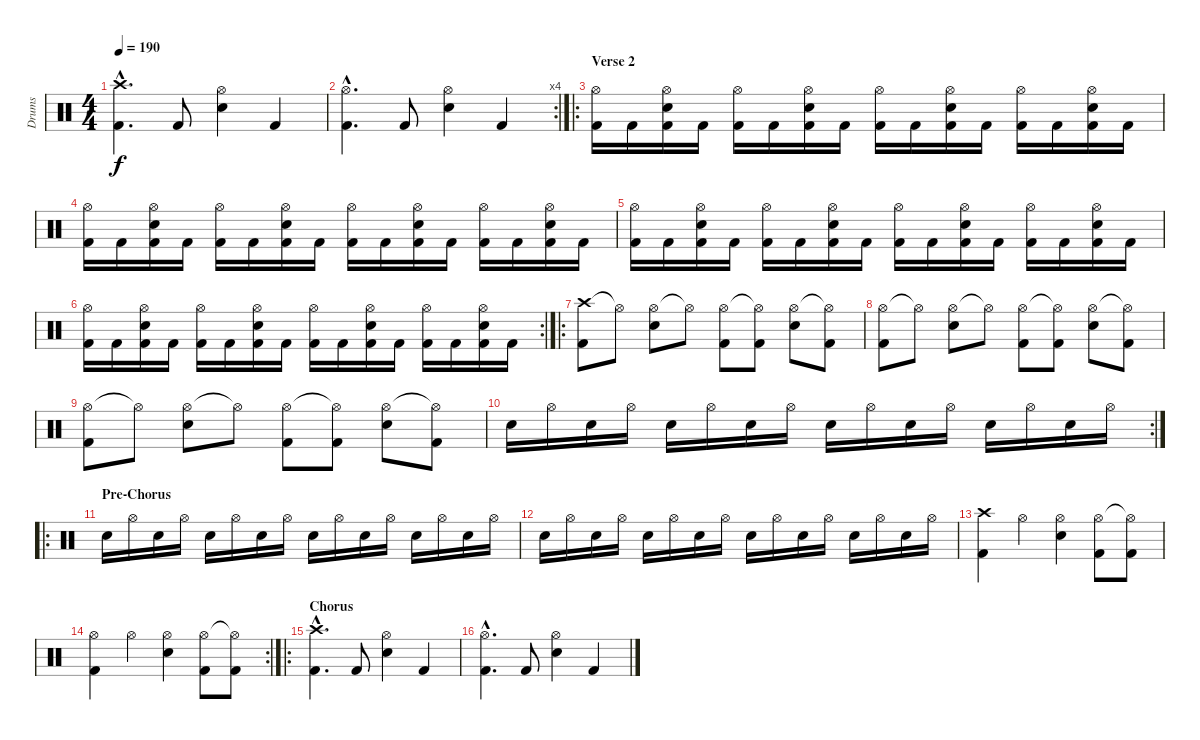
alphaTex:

\track ("Drums" "Drums") {instrument percussion}
\staff {score}
\articulation defaults
\ts (4 4)
\tempo 190
\clef neutral
\ks c
("Crash high (hit)"{hac} "Kick (hit) 2"{hac}).4{d dy f} "Kick (hit) 2".8 ("Electric Snare (hit)" "Hi-Hat (open)").4 "Kick (hit) 2".4 |
\rc 4
("Hi-Hat (open)"{hac} "Kick (hit) 2"{hac}).4{d} "Kick (hit) 2".8 ("Electric Snare (hit)" "Hi-Hat (open)").4 "Kick (hit) 2".4 |
\ro
\section ("" "Verse 2")
("Kick (hit) 2" "Hi-Hat (open)").16 "Kick (hit) 2".16 ("Kick (hit) 2" "Hi-Hat (open)" "Electric Snare (hit)").16 "Kick (hit) 2".16 ("Kick (hit) 2" "Hi-Hat (open)").16 "Kick (hit) 2".16 ("Kick (hit) 2" "Hi-Hat (open)" "Electric Snare (hit)").16 "Kick (hit) 2".16 ("Kick (hit) 2" "Hi-Hat (open)").16 "Kick (hit) 2".16 ("Kick (hit) 2" "Hi-Hat (open)" "Electric Snare (hit)").16 "Kick (hit) 2".16 ("Kick (hit) 2" "Hi-Hat (open)").16 "Kick (hit) 2".16 ("Kick (hit) 2" "Hi-Hat (open)" "Electric Snare (hit)").16 "Kick (hit) 2".16 |
("Kick (hit) 2" "Hi-Hat (open)").16 "Kick (hit) 2".16 ("Kick (hit) 2" "Hi-Hat (open)" "Electric Snare (hit)").16 "Kick (hit) 2".16 ("Kick (hit) 2" "Hi-Hat (open)").16 "Kick (hit) 2".16 ("Kick (hit) 2" "Hi-Hat (open)" "Electric Snare (hit)").16 "Kick (hit) 2".16 ("Kick (hit) 2" "Hi-Hat (open)").16 "Kick (hit) 2".16 ("Kick (hit) 2" "Hi-Hat (open)" "Electric Snare (hit)").16 "Kick (hit) 2".16 ("Kick (hit) 2" "Hi-Hat (open)").16 "Kick (hit) 2".16 ("Kick (hit) 2" "Hi-Hat (open)" "Electric Snare (hit)").16 "Kick (hit) 2".16 |
("Kick (hit) 2" "Hi-Hat (open)").16 "Kick (hit) 2".16 ("Kick (hit) 2" "Hi-Hat (open)" "Electric Snare (hit)").16 "Kick (hit) 2".16 ("Kick (hit) 2" "Hi-Hat (open)").16 "Kick (hit) 2".16 ("Kick (hit) 2" "Hi-Hat (open)" "Electric Snare (hit)").16 "Kick (hit) 2".16 ("Kick (hit) 2" "Hi-Hat (open)").16 "Kick (hit) 2".16 ("Kick (hit) 2" "Hi-Hat (open)" "Electric Snare (hit)").16 "Kick (hit) 2".16 ("Kick (hit) 2" "Hi-Hat (open)").16 "Kick (hit) 2".16 ("Kick (hit) 2" "Hi-Hat (open)" "Electric Snare (hit)").16 "Kick (hit) 2".16 |
\rc 2
("Kick (hit) 2" "Hi-Hat (open)").16 "Kick (hit) 2".16 ("Kick (hit) 2" "Hi-Hat (open)" "Electric Snare (hit)").16 "Kick (hit) 2".16 ("Kick (hit) 2" "Hi-Hat (open)").16 "Kick (hit) 2".16 ("Kick (hit) 2" "Hi-Hat (open)" "Electric Snare (hit)").16 "Kick (hit) 2".16 ("Kick (hit) 2" "Hi-Hat (open)").16 "Kick (hit) 2".16 ("Kick (hit) 2" "Hi-Hat (open)" "Electric Snare (hit)").16 "Kick (hit) 2".16 ("Kick (hit) 2" "Hi-Hat (open)").16 "Kick (hit) 2".16 ("Kick (hit) 2" "Hi-Hat (open)" "Electric Snare (hit)").16 "Kick (hit) 2".16 |
\ro
("Crash high (hit)" "Kick (hit) 2").8 "Hi-Hat (open)"{t}.8 ("Hi-Hat (open)" "Electric Snare (hit)").8 "Hi-Hat (open)"{t}.8 ("Hi-Hat (open)" "Kick (hit) 2").8 ("Hi-Hat (open)"{t} "Kick (hit) 2").8 ("Hi-Hat (open)" "Electric Snare (hit)").8 ("Hi-Hat (open)"{t} "Kick (hit) 2").8 |
("Hi-Hat (open)" "Kick (hit) 2").8 "Hi-Hat (open)"{t}.8 ("Hi-Hat (open)" "Electric Snare (hit)").8 "Hi-Hat (open)"{t}.8 ("Hi-Hat (open)" "Kick (hit) 2").8 ("Hi-Hat (open)"{t} "Kick (hit) 2").8 ("Hi-Hat (open)" "Electric Snare (hit)").8 ("Hi-Hat (open)"{t} "Kick (hit) 2").8 |
("Hi-Hat (open)" "Kick (hit) 2").8 "Hi-Hat (open)"{t}.8 ("Hi-Hat (open)" "Electric Snare (hit)").8 "Hi-Hat (open)"{t}.8 ("Hi-Hat (open)" "Kick (hit) 2").8 ("Hi-Hat (open)"{t} "Kick (hit) 2").8 ("Hi-Hat (open)" "Electric Snare (hit)").8 ("Hi-Hat (open)"{t} "Kick (hit) 2").8 |
\rc 2 "Electric Snare (hit)".16 "Hi-Hat (open)".16 "Electric Snare (hit)".16 "Hi-Hat (open)".16 "Electric Snare (hit)".16 "Hi-Hat (open)".16 "Electric Snare (hit)".16 "Hi-Hat (open)".16 "Electric Snare (hit)".16 "Hi-Hat (open)".16 "Electric Snare (hit)".16 "Hi-Hat (open)".16 "Electric Snare (hit)".16 "Hi-Hat (open)".16 "Electric Snare (hit)".16 "Hi-Hat (open)".16
|
\ro
\section ("" "Pre-Chorus")
"Electric Snare (hit)".16 "Hi-Hat (open)".16 "Electric Snare (hit)".16 "Hi-Hat (open)".16 "Electric Snare (hit)".16 "Hi-Hat (open)".16 "Electric Snare (hit)".16 "Hi-Hat (open)".16 "Electric Snare (hit)".16 "Hi-Hat (open)".16 "Electric Snare (hit)".16 "Hi-Hat (open)".16 "Electric Snare (hit)".16 "Hi-Hat (open)".16 "Electric Snare (hit)".16 "Hi-Hat (open)".16 |
"Electric Snare (hit)".16 "Hi-Hat (open)".16 "Electric Snare (hit)".16 "Hi-Hat (open)".16 "Electric Snare (hit)".16 "Hi-Hat (open)".16 "Electric Snare (hit)".16 "Hi-Hat (open)".16 "Electric Snare (hit)".16 "Hi-Hat (open)".16 "Electric Snare (hit)".16 "Hi-Hat (open)".16 "Electric Snare (hit)".16 "Hi-Hat (open)".16 "Electric Snare (hit)".16 "Hi-Hat (open)".16 |
("Crash high (hit)" "Kick (hit) 2").4 "Hi-Hat (open)".4 ("Hi-Hat (open)" "Electric Snare (hit)").4 ("Hi-Hat (open)" "Kick (hit) 2").8 ("Hi-Hat (open)"{t} "Kick (hit) 2").8 |
\rc 2
("Hi-Hat (open)" "Kick (hit) 2").4 "Hi-Hat (open)".4 ("Hi-Hat (open)" "Electric Snare (hit)").4 ("Hi-Hat (open)" "Kick (hit) 2").8 ("Hi-Hat (open)"{t} "Kick (hit) 2").8 |
\ro
\section ("" "Chorus")
("Crash high (hit)"{hac} "Kick (hit) 2"{hac}).4{d} "Kick (hit) 2".8 ("Electric Snare (hit)" "Hi-Hat (open)").4 "Kick (hit) 2".4 |
("Hi-Hat (open)"{hac} "Kick (hit) 2"{hac}).4{d} "Kick (hit) 2".8 ("Electric Snare (hit)" "Hi-Hat (open)").4 "Kick (hit) 2".4
